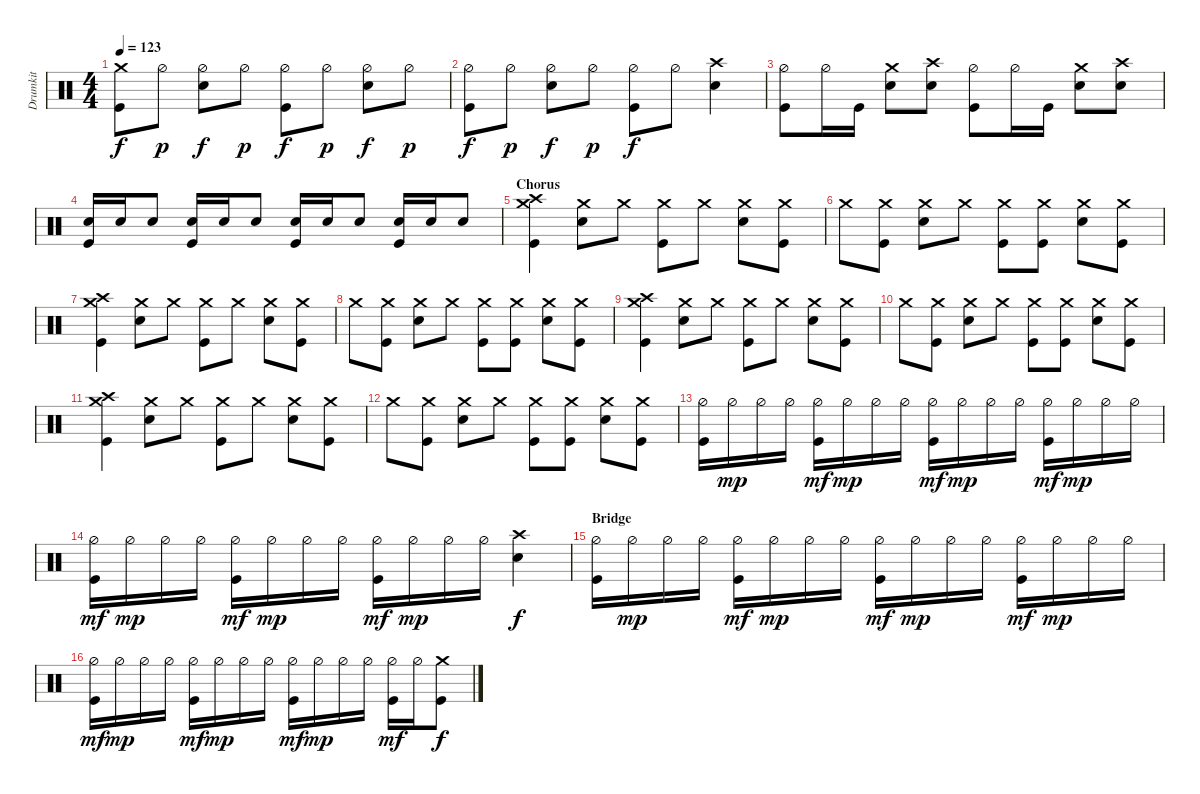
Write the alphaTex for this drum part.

\track ("Drumkit" "Drumkit") {instrument percussion}
\staff {score}
\articulation defaults
\ts (4 4)
\tempo 123
\clef neutral
\ks c
("Kick (hit)" "Crash medium (hit)").8{dy f} "Hi-Hat (half)".8{dy p} ("Hi-Hat (half)" "Snare (hit) 2").8{dy f} "Hi-Hat (half)".8{dy p} ("Hi-Hat (half)" "Kick (hit)").8{dy f} "Hi-Hat (half)".8{dy p} ("Hi-Hat (half)" "Snare (hit) 2").8{dy f} "Hi-Hat (half)".8{dy p} |
("Hi-Hat (half)" "Kick (hit)").8{dy f} "Hi-Hat (half)".8{dy p} ("Hi-Hat (half)" "Snare (hit) 2").8{dy f} "Hi-Hat (half)".8{dy p} ("Hi-Hat (half)" "Kick (hit)").8{dy f} "Hi-Hat (half)".8 ("Snare (hit) 2" "Crash high (hit)").4 |
("Hi-Hat (half)" "Kick (hit)").8 "Hi-Hat (half)".16 "Kick (hit)".16 ("Snare (hit) 2" "Crash medium (hit)").8 ("Snare (hit) 2" "Crash high (hit)").8 ("Hi-Hat (half)" "Kick (hit)").8 "Hi-Hat (half)".16 "Kick (hit)".16 ("Snare (hit) 2" "Crash medium (hit)").8 ("Snare (hit) 2" "Crash high (hit)").8 |
("Kick (hit)" "Snare (hit) 2").16 "Snare (hit) 2".16 "Snare (hit) 2".8 ("Kick (hit)" "Snare (hit) 2").16 "Snare (hit) 2".16 "Snare (hit) 2".8 ("Kick (hit)" "Snare (hit) 2").16 "Snare (hit) 2".16 "Snare (hit) 2".8 ("Kick (hit)" "Snare (hit) 2").16 "Snare (hit) 2".16 "Snare (hit) 2".8 |
\section ("" "Chorus")
("Kick (hit)" "Crash medium (hit)" "Crash high (hit)").4 ("Snare (hit) 2" "Crash medium (hit)").8 "Crash medium (hit)".8 ("Kick (hit)" "Crash medium (hit)").8 "Crash medium (hit)".8 ("Snare (hit) 2" "Crash medium (hit)").8 ("Crash medium (hit)" "Kick (hit)").8 |
"Crash medium (hit)".8 ("Crash medium (hit)" "Kick (hit)").8 ("Snare (hit) 2" "Crash medium (hit)").8 "Crash medium (hit)".8 ("Kick (hit)" "Crash medium (hit)").8 ("Crash medium (hit)" "Kick (hit)").8 ("Snare (hit) 2" "Crash medium (hit)").8 ("Crash medium (hit)" "Kick (hit)").8 |
("Kick (hit)" "Crash medium (hit)" "Crash high (hit)").4 ("Snare (hit) 2" "Crash medium (hit)").8 "Crash medium (hit)".8 ("Kick (hit)" "Crash medium (hit)").8 "Crash medium (hit)".8 ("Snare (hit) 2" "Crash medium (hit)").8 ("Crash medium (hit)" "Kick (hit)").8 |
"Crash medium (hit)".8 ("Crash medium (hit)" "Kick (hit)").8 ("Snare (hit) 2" "Crash medium (hit)").8 "Crash medium (hit)".8 ("Kick (hit)" "Crash medium (hit)").8 ("Crash medium (hit)" "Kick (hit)").8 ("Snare (hit) 2" "Crash medium (hit)").8 ("Crash medium (hit)" "Kick (hit)").8 |
("Kick (hit)" "Crash medium (hit)" "Crash high (hit)").4 ("Snare (hit) 2" "Crash medium (hit)").8 "Crash medium (hit)".8 ("Kick (hit)" "Crash medium (hit)").8 "Crash medium (hit)".8 ("Snare (hit) 2" "Crash medium (hit)").8 ("Crash medium (hit)" "Kick (hit)").8 |
"Crash medium (hit)".8 ("Crash medium (hit)" "Kick (hit)").8 ("Snare (hit) 2" "Crash medium (hit)").8 "Crash medium (hit)".8 ("Kick (hit)" "Crash medium (hit)").8 ("Crash medium (hit)" "Kick (hit)").8 ("Snare (hit) 2" "Crash medium (hit)").8 ("Crash medium (hit)" "Kick (hit)").8 |
("Kick (hit)" "Crash medium (hit)" "Crash high (hit)").4 ("Snare (hit) 2" "Crash medium (hit)").8 "Crash medium (hit)".8 ("Kick (hit)" "Crash medium (hit)").8 "Crash medium (hit)".8 ("Snare (hit) 2" "Crash medium (hit)").8 ("Crash medium (hit)" "Kick (hit)").8 |
"Crash medium (hit)".8 ("Crash medium (hit)" "Kick (hit)").8 ("Snare (hit) 2" "Crash medium (hit)").8 "Crash medium (hit)".8 ("Kick (hit)" "Crash medium (hit)").8 ("Crash medium (hit)" "Kick (hit)").8 ("Snare (hit) 2" "Crash medium (hit)").8 ("Crash medium (hit)" "Kick (hit)").8 |
("Kick (hit)" "Hi-Hat (half)").16 "Hi-Hat (half)".16{dy mp} "Hi-Hat (half)".16 "Hi-Hat (half)".16 ("Hi-Hat (half)" "Kick (hit)").16{dy mf} "Hi-Hat (half)".16{dy mp} "Hi-Hat (half)".16 "Hi-Hat (half)".16 ("Hi-Hat (half)" "Kick (hit)").16{dy mf} "Hi-Hat (half)".16{dy mp} "Hi-Hat (half)".16 "Hi-Hat (half)".16 ("Hi-Hat (half)" "Kick (hit)").16{dy mf} "Hi-Hat (half)".16{dy mp} "Hi-Hat (half)".16 "Hi-Hat (half)".16 |
("Kick (hit)" "Hi-Hat (half)").16{dy mf} "Hi-Hat (half)".16{dy mp} "Hi-Hat (half)".16 "Hi-Hat (half)".16 ("Hi-Hat (half)" "Kick (hit)").16{dy mf} "Hi-Hat (half)".16{dy mp} "Hi-Hat (half)".16 "Hi-Hat (half)".16 ("Hi-Hat (half)" "Kick (hit)").16{dy mf} "Hi-Hat (half)".16{dy mp} "Hi-Hat (half)".16 "Hi-Hat (half)".16 ("Snare (hit) 2" "Crash high (hit)").4{dy f} |
\section ("" "Bridge")
("Kick (hit)" "Hi-Hat (half)").16 "Hi-Hat (half)".16{dy mp} "Hi-Hat (half)".16 "Hi-Hat (half)".16 ("Hi-Hat (half)" "Kick (hit)").16{dy mf} "Hi-Hat (half)".16{dy mp} "Hi-Hat (half)".16 "Hi-Hat (half)".16 ("Hi-Hat (half)" "Kick (hit)").16{dy mf} "Hi-Hat (half)".16{dy mp} "Hi-Hat (half)".16 "Hi-Hat (half)".16 ("Hi-Hat (half)" "Kick (hit)").16{dy mf} "Hi-Hat (half)".16{dy mp} "Hi-Hat (half)".16 "Hi-Hat (half)".16 |
("Kick (hit)" "Hi-Hat (half)").16{dy mf} "Hi-Hat (half)".16{dy mp} "Hi-Hat (half)".16 "Hi-Hat (half)".16 ("Hi-Hat (half)" "Kick (hit)").16{dy mf} "Hi-Hat (half)".16{dy mp} "Hi-Hat (half)".16 "Hi-Hat (half)".16 ("Hi-Hat (half)" "Kick (hit)").16{dy mf} "Hi-Hat (half)".16{dy mp} "Hi-Hat (half)".16 "Hi-Hat (half)".16 ("Kick (hit)" "Hi-Hat (half)").16{dy mf} "Hi-Hat (half)".16 ("Kick (hit)" "Crash medium (hit)").8{dy f}
